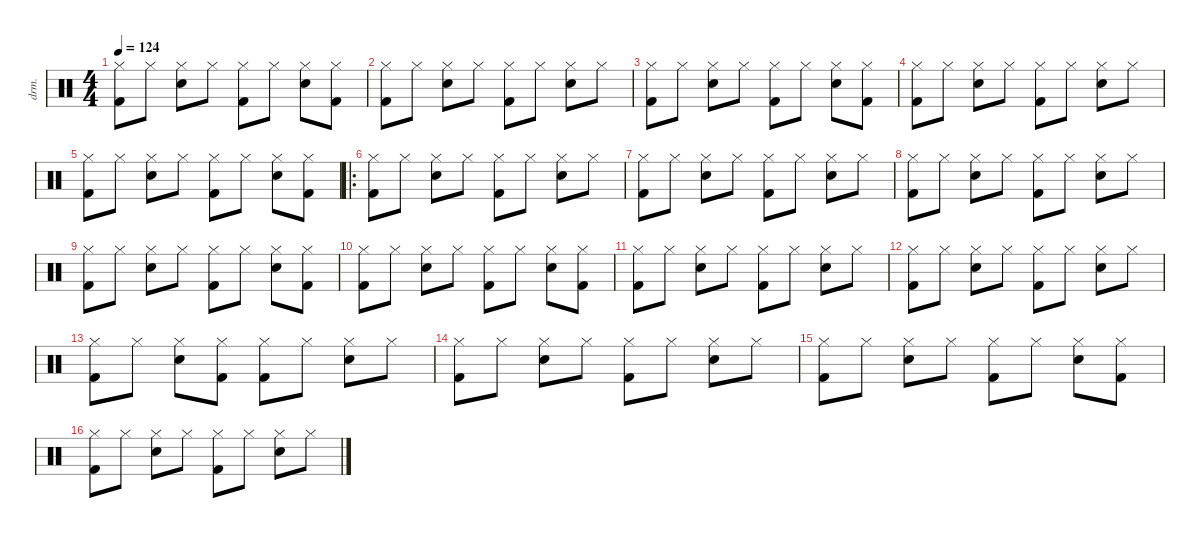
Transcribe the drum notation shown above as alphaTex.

\defaultSystemsLayout 4
\hideDynamics
\bracketExtendMode nobrackets
\otherSystemsTrackNameOrientation horizontal
\track ("Drums" "drm.") {instrument percussion}
\staff {score}
\articulation defaults
\ts (4 4)
\tempo 124
\clef neutral
\ks c
("Hi-Hat (closed)" "Kick (hit) 2").8{dy f} "Hi-Hat (closed)".8 ("Hi-Hat (closed)" "Snare (hit) 2").8 "Hi-Hat (closed)".8 ("Hi-Hat (closed)" "Kick (hit) 2").8 "Hi-Hat (closed)".8 ("Hi-Hat (closed)" "Snare (hit) 2").8 ("Hi-Hat (closed)" "Kick (hit) 2").8 |
("Hi-Hat (closed)" "Kick (hit) 2").8 "Hi-Hat (closed)".8 ("Hi-Hat (closed)" "Snare (hit) 2").8 "Hi-Hat (closed)".8 ("Hi-Hat (closed)" "Kick (hit) 2").8 "Hi-Hat (closed)".8 ("Hi-Hat (closed)" "Snare (hit) 2").8 "Hi-Hat (closed)".8 |
("Hi-Hat (closed)" "Kick (hit) 2").8 "Hi-Hat (closed)".8 ("Hi-Hat (closed)" "Snare (hit) 2").8 "Hi-Hat (closed)".8 ("Hi-Hat (closed)" "Kick (hit) 2").8 "Hi-Hat (closed)".8 ("Hi-Hat (closed)" "Snare (hit) 2").8 ("Hi-Hat (closed)" "Kick (hit) 2").8 |
("Hi-Hat (closed)" "Kick (hit) 2").8 "Hi-Hat (closed)".8 ("Hi-Hat (closed)" "Snare (hit) 2").8 "Hi-Hat (closed)".8 ("Hi-Hat (closed)" "Kick (hit) 2").8 "Hi-Hat (closed)".8 ("Hi-Hat (closed)" "Snare (hit) 2").8 "Hi-Hat (closed)".8 |
("Hi-Hat (closed)" "Kick (hit) 2").8 "Hi-Hat (closed)".8 ("Hi-Hat (closed)" "Snare (hit) 2").8 "Hi-Hat (closed)".8 ("Hi-Hat (closed)" "Kick (hit) 2").8 "Hi-Hat (closed)".8 ("Hi-Hat (closed)" "Snare (hit) 2").8 ("Hi-Hat (closed)" "Kick (hit) 2").8 |
\ro
("Hi-Hat (closed)" "Kick (hit) 2").8 "Hi-Hat (closed)".8 ("Hi-Hat (closed)" "Snare (hit) 2").8 "Hi-Hat (closed)".8 ("Hi-Hat (closed)" "Kick (hit) 2").8 "Hi-Hat (closed)".8 ("Hi-Hat (closed)" "Snare (hit) 2").8 "Hi-Hat (closed)".8 |
("Hi-Hat (closed)" "Kick (hit) 2").8 "Hi-Hat (closed)".8 ("Hi-Hat (closed)" "Snare (hit) 2").8 "Hi-Hat (closed)".8 ("Hi-Hat (closed)" "Kick (hit) 2").8 "Hi-Hat (closed)".8 ("Hi-Hat (closed)" "Snare (hit) 2").8 "Hi-Hat (closed)".8 |
("Hi-Hat (closed)" "Kick (hit) 2").8 "Hi-Hat (closed)".8 ("Hi-Hat (closed)" "Snare (hit) 2").8 "Hi-Hat (closed)".8 ("Hi-Hat (closed)" "Kick (hit) 2").8 "Hi-Hat (closed)".8 ("Hi-Hat (closed)" "Snare (hit) 2").8 "Hi-Hat (closed)".8 |
("Hi-Hat (closed)" "Kick (hit) 2").8 "Hi-Hat (closed)".8 ("Hi-Hat (closed)" "Snare (hit) 2").8 "Hi-Hat (closed)".8 ("Hi-Hat (closed)" "Kick (hit) 2").8 "Hi-Hat (closed)".8 ("Hi-Hat (closed)" "Snare (hit) 2").8 ("Hi-Hat (closed)" "Kick (hit) 2").8 |
("Hi-Hat (closed)" "Kick (hit) 2").8 "Hi-Hat (closed)".8 ("Hi-Hat (closed)" "Snare (hit) 2").8 "Hi-Hat (closed)".8 ("Hi-Hat (closed)" "Kick (hit) 2").8 "Hi-Hat (closed)".8 ("Hi-Hat (closed)" "Snare (hit) 2").8 ("Hi-Hat (closed)" "Kick (hit) 2").8 |
("Hi-Hat (closed)" "Kick (hit) 2").8 "Hi-Hat (closed)".8 ("Hi-Hat (closed)" "Snare (hit) 2").8 "Hi-Hat (closed)".8 ("Hi-Hat (closed)" "Kick (hit) 2").8 "Hi-Hat (closed)".8 ("Hi-Hat (closed)" "Snare (hit) 2").8 "Hi-Hat (closed)".8 |
("Hi-Hat (closed)" "Kick (hit) 2").8 "Hi-Hat (closed)".8 ("Hi-Hat (closed)" "Snare (hit) 2").8 "Hi-Hat (closed)".8 ("Hi-Hat (closed)" "Kick (hit) 2").8 "Hi-Hat (closed)".8 ("Hi-Hat (closed)" "Snare (hit) 2").8 "Hi-Hat (closed)".8 |
("Hi-Hat (closed)" "Kick (hit) 2").8 "Hi-Hat (closed)".8 ("Hi-Hat (closed)" "Snare (hit) 2").8 ("Hi-Hat (closed)" "Kick (hit) 2").8 ("Hi-Hat (closed)" "Kick (hit) 2").8 "Hi-Hat (closed)".8 ("Hi-Hat (closed)" "Snare (hit) 2").8 "Hi-Hat (closed)".8 |
("Hi-Hat (closed)" "Kick (hit) 2").8 "Hi-Hat (closed)".8 ("Hi-Hat (closed)" "Snare (hit) 2").8 "Hi-Hat (closed)".8 ("Hi-Hat (closed)" "Kick (hit) 2").8 "Hi-Hat (closed)".8 ("Hi-Hat (closed)" "Snare (hit) 2").8 "Hi-Hat (closed)".8 |
("Hi-Hat (closed)" "Kick (hit) 2").8 "Hi-Hat (closed)".8 ("Hi-Hat (closed)" "Snare (hit) 2").8 "Hi-Hat (closed)".8 ("Hi-Hat (closed)" "Kick (hit) 2").8 "Hi-Hat (closed)".8 ("Hi-Hat (closed)" "Snare (hit) 2").8 ("Hi-Hat (closed)" "Kick (hit) 2").8 |
("Hi-Hat (closed)" "Kick (hit) 2").8 "Hi-Hat (closed)".8 ("Hi-Hat (closed)" "Snare (hit) 2").8 "Hi-Hat (closed)".8 ("Hi-Hat (closed)" "Kick (hit) 2").8 "Hi-Hat (closed)".8 ("Hi-Hat (closed)" "Snare (hit) 2").8 "Hi-Hat (closed)".8
